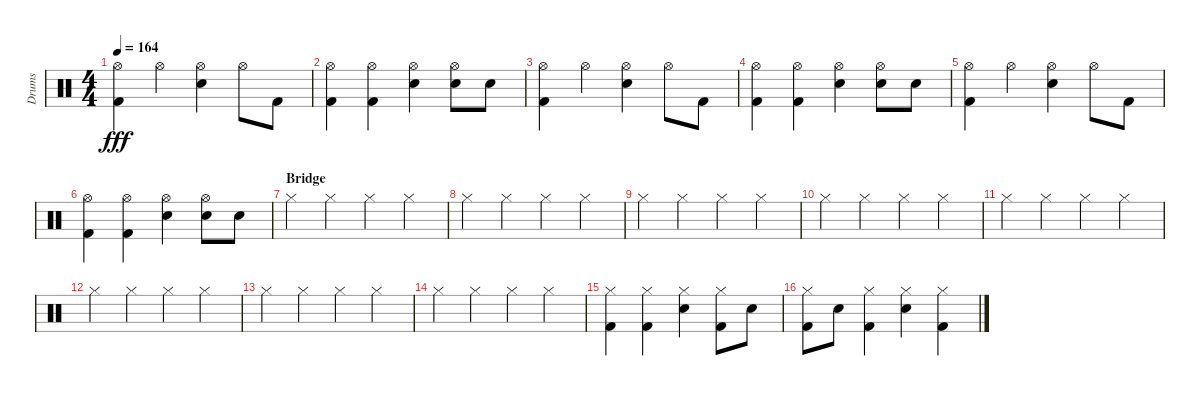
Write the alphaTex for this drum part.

\track ("Drums" "Drums") {instrument percussion}
\staff {score}
\articulation defaults
\ts (4 4)
\tempo 164
\clef neutral
\ks c
("Hi-Hat (open)" "Kick (hit) 2").4{dy fff} "Hi-Hat (open)".4 ("Hi-Hat (open)" "Electric Snare (hit)").4 "Hi-Hat (open)".8 "Kick (hit) 2".8 |
("Hi-Hat (open)" "Kick (hit) 2").4 ("Hi-Hat (open)" "Kick (hit) 2").4 ("Hi-Hat (open)" "Electric Snare (hit)").4 ("Hi-Hat (open)" "Electric Snare (hit)").8 "Electric Snare (hit)".8 |
("Hi-Hat (open)" "Kick (hit) 2").4 "Hi-Hat (open)".4 ("Hi-Hat (open)" "Electric Snare (hit)").4 "Hi-Hat (open)".8 "Kick (hit) 2".8 |
("Hi-Hat (open)" "Kick (hit) 2").4 ("Hi-Hat (open)" "Kick (hit) 2").4 ("Hi-Hat (open)" "Electric Snare (hit)").4 ("Hi-Hat (open)" "Electric Snare (hit)").8 "Electric Snare (hit)".8 |
("Hi-Hat (open)" "Kick (hit) 2").4 "Hi-Hat (open)".4 ("Hi-Hat (open)" "Electric Snare (hit)").4 "Hi-Hat (open)".8 "Kick (hit) 2".8 |
("Hi-Hat (open)" "Kick (hit) 2").4 ("Hi-Hat (open)" "Kick (hit) 2").4 ("Hi-Hat (open)" "Electric Snare (hit)").4 ("Hi-Hat (open)" "Electric Snare (hit)").8 "Electric Snare (hit)".8 |
\section ("" "Bridge")
"Hi-Hat (closed)".4 "Hi-Hat (closed)".4 "Hi-Hat (closed)".4 "Hi-Hat (closed)".4 |
"Hi-Hat (closed)".4 "Hi-Hat (closed)".4 "Hi-Hat (closed)".4 "Hi-Hat (closed)".4 |
"Hi-Hat (closed)".4 "Hi-Hat (closed)".4 "Hi-Hat (closed)".4 "Hi-Hat (closed)".4 |
"Hi-Hat (closed)".4 "Hi-Hat (closed)".4 "Hi-Hat (closed)".4 "Hi-Hat (closed)".4 |
"Hi-Hat (closed)".4 "Hi-Hat (closed)".4 "Hi-Hat (closed)".4 "Hi-Hat (closed)".4 |
"Hi-Hat (closed)".4 "Hi-Hat (closed)".4 "Hi-Hat (closed)".4 "Hi-Hat (closed)".4 |
"Hi-Hat (closed)".4 "Hi-Hat (closed)".4 "Hi-Hat (closed)".4 "Hi-Hat (closed)".4 |
"Hi-Hat (closed)".4 "Hi-Hat (closed)".4 "Hi-Hat (closed)".4 "Hi-Hat (closed)".4 |
("Hi-Hat (closed)" "Kick (hit) 2").4 ("Hi-Hat (closed)" "Kick (hit) 2").4 ("Hi-Hat (closed)" "Electric Snare (hit)").4 ("Hi-Hat (closed)" "Kick (hit) 2").8 "Electric Snare (hit)".8 |
("Hi-Hat (closed)" "Kick (hit) 2").8 "Electric Snare (hit)".8 ("Hi-Hat (closed)" "Kick (hit) 2").4 ("Hi-Hat (closed)" "Electric Snare (hit)").4 ("Hi-Hat (closed)" "Kick (hit) 2").4
